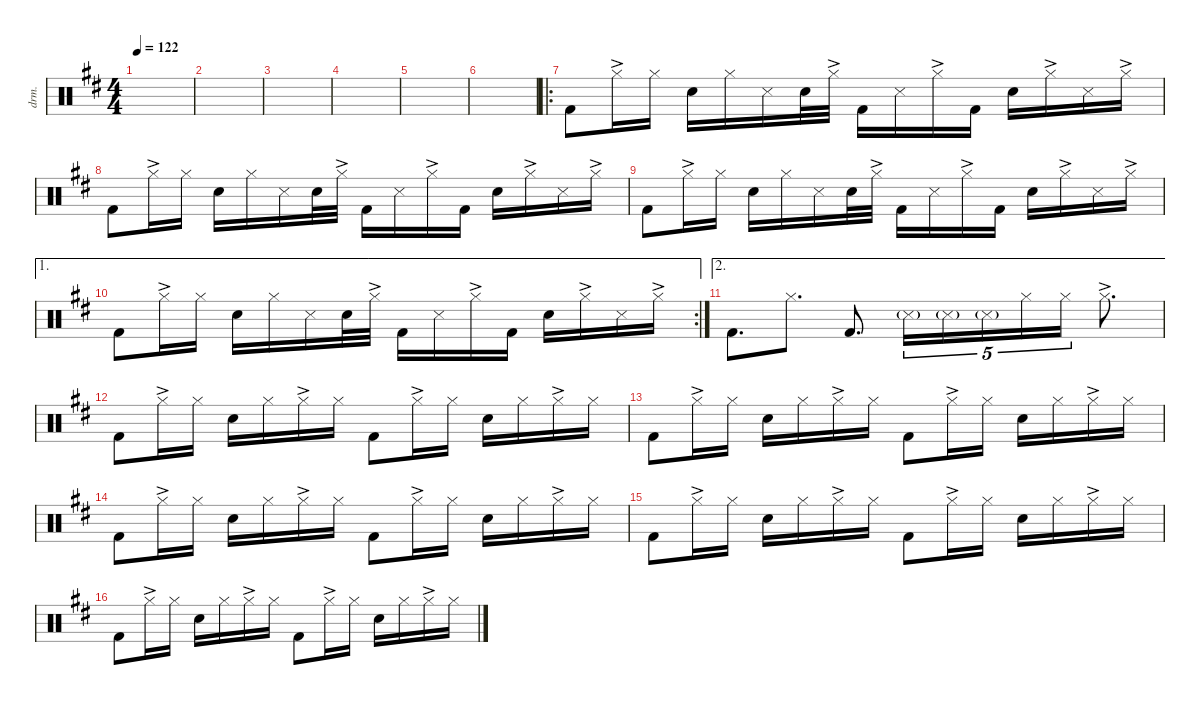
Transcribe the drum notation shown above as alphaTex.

\defaultSystemsLayout 4
\hideDynamics
\bracketExtendMode nobrackets
\otherSystemsTrackNameOrientation horizontal
\track ("Drumkit" "drm.") {defaultSystemsLayout 4 instrument percussion}
\staff {score}
\articulation defaults
\ts (4 4)
\tempo 122
\clef neutral
\ks d
|
|
|
|
|
|
\ro "Kick (hit) 2"{acc forcenatural}.8{beam Down} "Hi-Hat (closed)"{ac acc forcenatural}.16{beam Down} "Hi-Hat (closed)"{acc forcenatural}.16{beam Down} "Snare (hit) 2"{acc forcenatural}.16{beam Down} "Hi-Hat (closed)"{acc forcenatural}.16{beam Down} "Snare (side stick) 3"{acc forcenatural}.16{beam Down} "Snare (hit) 2"{acc forcenatural}.32{beam Down} "Hi-Hat (closed)"{ac acc forcenatural}.32{beam Down} "Kick (hit) 2"{acc forcenatural}.16{beam Down} "Snare (side stick) 3"{acc forcenatural}.16{beam Down} "Hi-Hat (closed)"{ac acc forcenatural}.16{beam Down} "Kick (hit) 2"{acc forcenatural}.16{beam Down} "Snare (hit) 2"{acc forcenatural}.16{beam Down} "Hi-Hat (closed)"{ac acc forcenatural}.16{beam Down} "Snare (side stick) 3"{acc forcenatural}.16{beam Down} "Hi-Hat (closed)"{ac acc forcenatural}.16{beam Down}
|
"Kick (hit) 2"{acc forcenatural}.8{beam Down} "Hi-Hat (closed)"{ac acc forcenatural}.16{beam Down} "Hi-Hat (closed)"{acc forcenatural}.16{beam Down} "Snare (hit) 2"{acc forcenatural}.16{beam Down} "Hi-Hat (closed)"{acc forcenatural}.16{beam Down} "Snare (side stick) 3"{acc forcenatural}.16{beam Down} "Snare (hit) 2"{acc forcenatural}.32{beam Down} "Hi-Hat (closed)"{ac acc forcenatural}.32{beam Down} "Kick (hit) 2"{acc forcenatural}.16{beam Down} "Snare (side stick) 3"{acc forcenatural}.16{beam Down} "Hi-Hat (closed)"{ac acc forcenatural}.16{beam Down} "Kick (hit) 2"{acc forcenatural}.16{beam Down} "Snare (hit) 2"{acc forcenatural}.16{beam Down} "Hi-Hat (closed)"{ac acc forcenatural}.16{beam Down} "Snare (side stick) 3"{acc forcenatural}.16{beam Down} "Hi-Hat (closed)"{ac acc forcenatural}.16{beam Down} |
"Kick (hit) 2"{acc forcenatural}.8{beam Down} "Hi-Hat (closed)"{ac acc forcenatural}.16{beam Down} "Hi-Hat (closed)"{acc forcenatural}.16{beam Down} "Snare (hit) 2"{acc forcenatural}.16{beam Down} "Hi-Hat (closed)"{acc forcenatural}.16{beam Down} "Snare (side stick) 3"{acc forcenatural}.16{beam Down} "Snare (hit) 2"{acc forcenatural}.32{beam Down} "Hi-Hat (closed)"{ac acc forcenatural}.32{beam Down} "Kick (hit) 2"{acc forcenatural}.16{beam Down} "Snare (side stick) 3"{acc forcenatural}.16{beam Down} "Hi-Hat (closed)"{ac acc forcenatural}.16{beam Down} "Kick (hit) 2"{acc forcenatural}.16{beam Down} "Snare (hit) 2"{acc forcenatural}.16{beam Down} "Hi-Hat (closed)"{ac acc forcenatural}.16{beam Down} "Snare (side stick) 3"{acc forcenatural}.16{beam Down} "Hi-Hat (closed)"{ac acc forcenatural}.16{beam Down} |
\ae 1
\rc 2 "Kick (hit) 2"{acc forcenatural}.8{beam Down} "Hi-Hat (closed)"{ac acc forcenatural}.16{beam Down} "Hi-Hat (closed)"{acc forcenatural}.16{beam Down} "Snare (hit) 2"{acc forcenatural}.16{beam Down} "Hi-Hat (closed)"{acc forcenatural}.16{beam Down} "Snare (side stick) 3"{acc forcenatural}.16{beam Down} "Snare (hit) 2"{acc forcenatural}.32{beam Down} "Hi-Hat (closed)"{ac acc forcenatural}.32{beam Down} "Kick (hit) 2"{acc forcenatural}.16{beam Down} "Snare (side stick) 3"{acc forcenatural}.16{beam Down} "Hi-Hat (closed)"{ac acc forcenatural}.16{beam Down} "Kick (hit) 2"{acc forcenatural}.16{beam Down} "Snare (hit) 2"{acc forcenatural}.16{beam Down} "Hi-Hat (closed)"{ac acc forcenatural}.16{beam Down} "Snare (side stick) 3"{acc forcenatural}.16{beam Down} "Hi-Hat (closed)"{ac acc forcenatural}.16{beam Down}
|
\ae 2 "Kick (hit) 2"{acc forcenatural}.8{d beam Down} "Hi-Hat (closed)"{acc forcenatural}.8{d beam Down} "Kick (hit) 2"{acc forcenatural}.8{d beam Up} "Snare (side stick) 3"{g acc forcenatural}.16{tu (5 4) beam Down} "Snare (side stick) 3"{g acc forcenatural}.16{tu (5 4) beam Down} "Snare (side stick) 3"{g acc forcenatural}.16{tu (5 4) beam Down} "Hi-Hat (closed)"{acc forcenatural}.16{tu (5 4) beam Down} "Hi-Hat (closed)"{acc forcenatural}.16{tu (5 4) beam Down} "Hi-Hat (closed)"{ac acc forcenatural}.8{d beam Down}
|
"Kick (hit) 2"{acc forcenatural}.8{beam Down} "Hi-Hat (closed)"{ac acc forcenatural}.16{beam Down} "Hi-Hat (closed)"{acc forcenatural}.16{beam Down} "Snare (hit) 2"{acc forcenatural}.16{beam Down} "Hi-Hat (closed)"{acc forcenatural}.16{beam Down} "Hi-Hat (closed)"{ac acc forcenatural}.16{beam Down} "Hi-Hat (closed)"{acc forcenatural}.16{beam Down} "Kick (hit) 2"{acc forcenatural}.8{beam Down} "Hi-Hat (closed)"{ac acc forcenatural}.16{beam Down} "Hi-Hat (closed)"{acc forcenatural}.16{beam Down} "Snare (hit) 2"{acc forcenatural}.16{beam Down} "Hi-Hat (closed)"{acc forcenatural}.16{beam Down} "Hi-Hat (closed)"{ac acc forcenatural}.16{beam Down} "Hi-Hat (closed)"{acc forcenatural}.16{beam Down} |
"Kick (hit) 2"{acc forcenatural}.8{beam Down} "Hi-Hat (closed)"{ac acc forcenatural}.16{beam Down} "Hi-Hat (closed)"{acc forcenatural}.16{beam Down} "Snare (hit) 2"{acc forcenatural}.16{beam Down} "Hi-Hat (closed)"{acc forcenatural}.16{beam Down} "Hi-Hat (closed)"{ac acc forcenatural}.16{beam Down} "Hi-Hat (closed)"{acc forcenatural}.16{beam Down} "Kick (hit) 2"{acc forcenatural}.8{beam Down} "Hi-Hat (closed)"{ac acc forcenatural}.16{beam Down} "Hi-Hat (closed)"{acc forcenatural}.16{beam Down} "Snare (hit) 2"{acc forcenatural}.16{beam Down} "Hi-Hat (closed)"{acc forcenatural}.16{beam Down} "Hi-Hat (closed)"{ac acc forcenatural}.16{beam Down} "Hi-Hat (closed)"{acc forcenatural}.16{beam Down} |
"Kick (hit) 2"{acc forcenatural}.8{beam Down} "Hi-Hat (closed)"{ac acc forcenatural}.16{beam Down} "Hi-Hat (closed)"{acc forcenatural}.16{beam Down} "Snare (hit) 2"{acc forcenatural}.16{beam Down} "Hi-Hat (closed)"{acc forcenatural}.16{beam Down} "Hi-Hat (closed)"{ac acc forcenatural}.16{beam Down} "Hi-Hat (closed)"{acc forcenatural}.16{beam Down} "Kick (hit) 2"{acc forcenatural}.8{beam Down} "Hi-Hat (closed)"{ac acc forcenatural}.16{beam Down} "Hi-Hat (closed)"{acc forcenatural}.16{beam Down} "Snare (hit) 2"{acc forcenatural}.16{beam Down} "Hi-Hat (closed)"{acc forcenatural}.16{beam Down} "Hi-Hat (closed)"{ac acc forcenatural}.16{beam Down} "Hi-Hat (closed)"{acc forcenatural}.16{beam Down} |
"Kick (hit) 2"{acc forcenatural}.8{beam Down} "Hi-Hat (closed)"{ac acc forcenatural}.16{beam Down} "Hi-Hat (closed)"{acc forcenatural}.16{beam Down} "Snare (hit) 2"{acc forcenatural}.16{beam Down} "Hi-Hat (closed)"{acc forcenatural}.16{beam Down} "Hi-Hat (closed)"{ac acc forcenatural}.16{beam Down} "Hi-Hat (closed)"{acc forcenatural}.16{beam Down} "Kick (hit) 2"{acc forcenatural}.8{beam Down} "Hi-Hat (closed)"{ac acc forcenatural}.16{beam Down} "Hi-Hat (closed)"{acc forcenatural}.16{beam Down} "Snare (hit) 2"{acc forcenatural}.16{beam Down} "Hi-Hat (closed)"{acc forcenatural}.16{beam Down} "Hi-Hat (closed)"{ac acc forcenatural}.16{beam Down} "Hi-Hat (closed)"{acc forcenatural}.16{beam Down} |
"Kick (hit) 2"{acc forcenatural}.8{beam Down} "Hi-Hat (closed)"{ac acc forcenatural}.16{beam Down} "Hi-Hat (closed)"{acc forcenatural}.16{beam Down} "Snare (hit) 2"{acc forcenatural}.16{beam Down} "Hi-Hat (closed)"{acc forcenatural}.16{beam Down} "Hi-Hat (closed)"{ac acc forcenatural}.16{beam Down} "Hi-Hat (closed)"{acc forcenatural}.16{beam Down} "Kick (hit) 2"{acc forcenatural}.8{beam Down} "Hi-Hat (closed)"{ac acc forcenatural}.16{beam Down} "Hi-Hat (closed)"{acc forcenatural}.16{beam Down} "Snare (hit) 2"{acc forcenatural}.16{beam Down} "Hi-Hat (closed)"{acc forcenatural}.16{beam Down} "Hi-Hat (closed)"{ac acc forcenatural}.16{beam Down} "Hi-Hat (closed)"{acc forcenatural}.16{beam Down}
